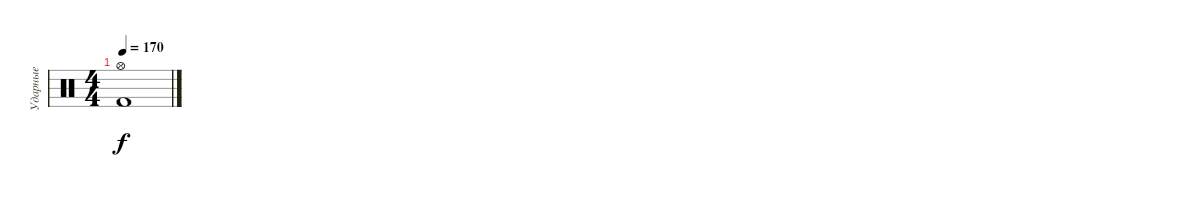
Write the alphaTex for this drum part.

\track ("Ударные" "Ударные") {instrument percussion}
\staff {score}
\articulation defaults
\ts (4 4)
\tempo 170
\clef neutral
\ks c
("Hi-Hat (open)" "Kick (hit) 2").1{dy f}
